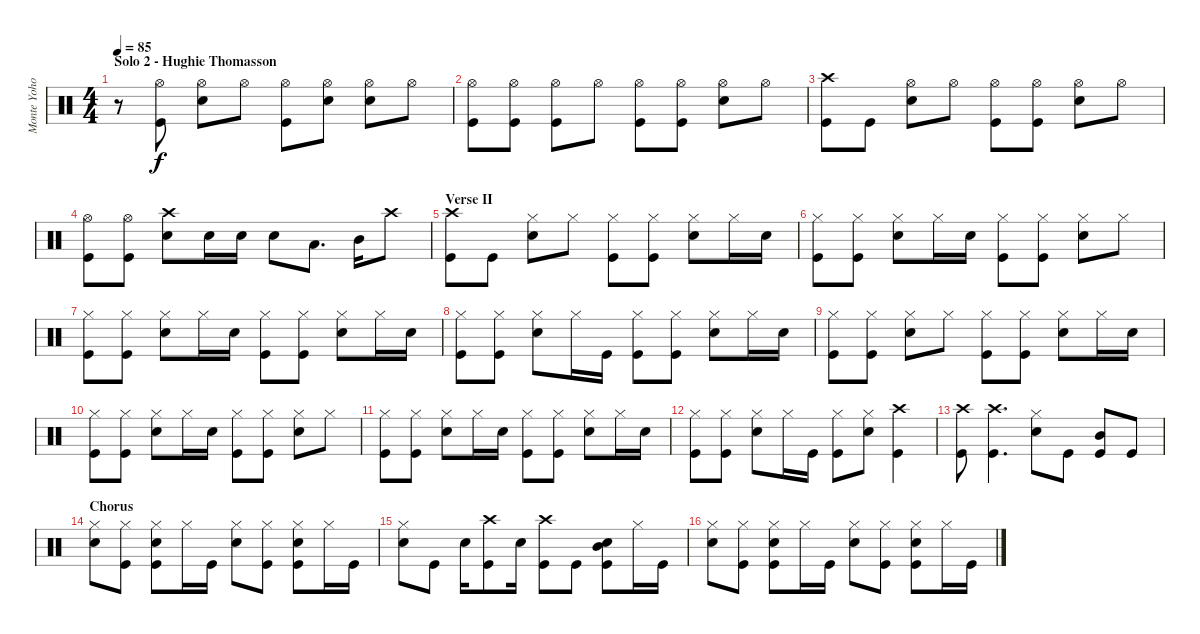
\track ("Monte Yoho - Drums" "Monte Yoho") {instrument percussion}
\staff {score}
\articulation defaults
\ts (4 4)
\section ("" "Solo 2 - Hughie Thomasson")
\tempo 85
\clef neutral
\ks c
r.8{dy f} ("Hi-Hat (open)" "Kick (hit)").8 ("Hi-Hat (open)" "Snare (hit) 2").8 "Hi-Hat (open)".8 ("Hi-Hat (open)" "Kick (hit)").8 ("Hi-Hat (open)" "Snare (hit) 2").8 ("Hi-Hat (open)" "Snare (hit) 2").8 "Hi-Hat (open)".8 |
("Hi-Hat (open)" "Kick (hit)").8 ("Hi-Hat (open)" "Kick (hit)").8 ("Hi-Hat (open)" "Kick (hit)").8 "Hi-Hat (open)".8 ("Hi-Hat (open)" "Kick (hit)").8 ("Hi-Hat (open)" "Kick (hit)").8 ("Hi-Hat (open)" "Snare (hit) 2").8 "Hi-Hat (open)".8 |
("Crash high (hit)" "Kick (hit)").8 "Kick (hit)".8 ("Hi-Hat (open)" "Snare (hit) 2").8 "Hi-Hat (open)".8 ("Hi-Hat (open)" "Kick (hit)").8 ("Hi-Hat (open)" "Kick (hit)").8 ("Hi-Hat (open)" "Snare (hit) 2").8 "Hi-Hat (open)".8 |
("Hi-Hat (open)" "Kick (hit)").8 ("Hi-Hat (open)" "Kick (hit)").8 ("Crash high (hit)" "Snare (hit) 2").8 "Snare (hit) 2".16 "Snare (hit) 2".16 "Snare (hit) 2".8 "Low Tom (hit)".8{d} "Mid Tom (hit)".16 "Crash high (hit)".8 |
\section ("" "Verse II")
("Crash high (hit)" "Kick (hit)").8 "Kick (hit)".8 ("Hi-Hat (closed)" "Snare (hit) 2").8 "Hi-Hat (closed)".8 ("Hi-Hat (closed)" "Kick (hit)").8 ("Hi-Hat (closed)" "Kick (hit)").8 ("Hi-Hat (closed)" "Snare (hit) 2").8 "Hi-Hat (closed)".16 "Snare (hit) 2".16 |
("Hi-Hat (closed)" "Kick (hit)").8 ("Hi-Hat (closed)" "Kick (hit)").8 ("Hi-Hat (closed)" "Snare (hit) 2").8 "Hi-Hat (closed)".16 "Snare (hit) 2".16 ("Hi-Hat (closed)" "Kick (hit)").8 ("Hi-Hat (closed)" "Kick (hit)").8 ("Hi-Hat (closed)" "Snare (hit) 2").8 "Hi-Hat (closed)".8 |
("Hi-Hat (closed)" "Kick (hit)").8 ("Hi-Hat (closed)" "Kick (hit)").8 ("Hi-Hat (closed)" "Snare (hit) 2").8 "Hi-Hat (closed)".16 "Snare (hit) 2".16 ("Hi-Hat (closed)" "Kick (hit)").8 ("Hi-Hat (closed)" "Kick (hit)").8 ("Hi-Hat (closed)" "Snare (hit) 2").8 "Hi-Hat (closed)".16 "Snare (hit) 2".16 |
("Hi-Hat (closed)" "Kick (hit)").8 ("Hi-Hat (closed)" "Kick (hit)").8 ("Hi-Hat (closed)" "Snare (hit) 2").8 "Hi-Hat (closed)".16 "Kick (hit)".16 ("Hi-Hat (closed)" "Kick (hit)").8 ("Hi-Hat (closed)" "Kick (hit)").8 ("Hi-Hat (closed)" "Snare (hit) 2").8 "Hi-Hat (closed)".16 "Snare (hit) 2".16 |
("Hi-Hat (closed)" "Kick (hit)").8 ("Hi-Hat (closed)" "Kick (hit)").8 ("Hi-Hat (closed)" "Snare (hit) 2").8 "Hi-Hat (closed)".8 ("Hi-Hat (closed)" "Kick (hit)").8 ("Hi-Hat (closed)" "Kick (hit)").8 ("Hi-Hat (closed)" "Snare (hit) 2").8 "Hi-Hat (closed)".16 "Snare (hit) 2".16 |
("Hi-Hat (closed)" "Kick (hit)").8 ("Hi-Hat (closed)" "Kick (hit)").8 ("Hi-Hat (closed)" "Snare (hit) 2").8 "Hi-Hat (closed)".16 "Snare (hit) 2".16 ("Hi-Hat (closed)" "Kick (hit)").8 ("Hi-Hat (closed)" "Kick (hit)").8 ("Hi-Hat (closed)" "Snare (hit) 2").8 "Hi-Hat (closed)".8 |
("Hi-Hat (closed)" "Kick (hit)").8 ("Hi-Hat (closed)" "Kick (hit)").8 ("Hi-Hat (closed)" "Snare (hit) 2").8 "Hi-Hat (closed)".16 "Snare (hit) 2".16 ("Hi-Hat (closed)" "Kick (hit)").8 ("Hi-Hat (closed)" "Kick (hit)").8 ("Hi-Hat (closed)" "Snare (hit) 2").8 "Hi-Hat (closed)".16 "Snare (hit) 2".16 |
("Hi-Hat (closed)" "Kick (hit)").8 ("Hi-Hat (closed)" "Kick (hit)").8 ("Hi-Hat (closed)" "Snare (hit) 2").8 "Hi-Hat (closed)".16 "Kick (hit)".16 ("Hi-Hat (closed)" "Kick (hit)").8 ("Hi-Hat (closed)" "Snare (hit) 2").8 ("Crash high (hit)" "Kick (hit)").4 |
("Crash high (hit)" "Kick (hit)").8 ("Crash high (hit)" "Kick (hit)").4{d} ("Hi-Hat (closed)" "Snare (hit) 2").8 "Kick (hit)".8 ("Mid Tom (hit)" "Kick (hit)").8 "Kick (hit)".8 |
\section ("" "Chorus")
("Hi-Hat (closed)" "Snare (hit) 2").8 ("Hi-Hat (closed)" "Kick (hit)").8 ("Hi-Hat (closed)" "Snare (hit) 2" "Kick (hit)").8 "Hi-Hat (closed)".16 "Kick (hit)".16 ("Hi-Hat (closed)" "Snare (hit) 2").8 ("Hi-Hat (closed)" "Kick (hit)").8 ("Hi-Hat (closed)" "Snare (hit) 2" "Kick (hit)").8 "Hi-Hat (closed)".16 "Kick (hit)".16 |
("Hi-Hat (closed)" "Snare (hit) 2").8 "Kick (hit)".8 "Snare (hit) 2".16 ("Crash high (hit)" "Kick (hit)").8 "Snare (hit) 2".16 ("Crash high (hit)" "Kick (hit)").8 "Kick (hit)".8 ("Mid Tom (hit)" "Snare (hit) 2" "Kick (hit)").8 "Hi-Hat (closed)".16 "Kick (hit)".16 |
("Hi-Hat (closed)" "Snare (hit) 2").8 ("Hi-Hat (closed)" "Kick (hit)").8 ("Hi-Hat (closed)" "Snare (hit) 2" "Kick (hit)").8 "Hi-Hat (closed)".16 "Kick (hit)".16 ("Hi-Hat (closed)" "Snare (hit) 2").8 ("Hi-Hat (closed)" "Kick (hit)").8 ("Hi-Hat (closed)" "Snare (hit) 2" "Kick (hit)").8 "Hi-Hat (closed)".16 "Kick (hit)".16
